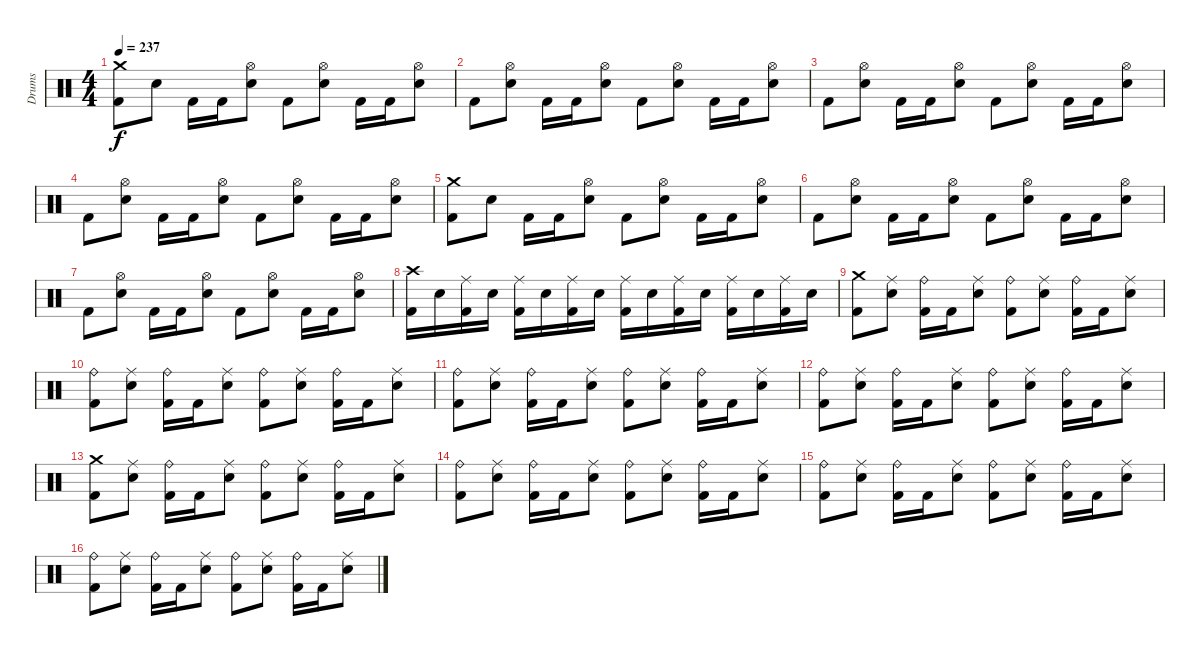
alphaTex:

\track ("Drums" "Drums") {instrument percussion}
\staff {score}
\articulation defaults
\ts (4 4)
\tempo 237
\clef neutral
\ks c
("Crash medium (hit)" "Kick (hit) 2").8{dy f} "Electric Snare (hit)".8 "Kick (hit) 2".16 "Kick (hit) 2".16 ("Hi-Hat (open)" "Electric Snare (hit)").8 "Kick (hit) 2".8 ("Hi-Hat (open)" "Electric Snare (hit)").8 "Kick (hit) 2".16 "Kick (hit) 2".16 ("Hi-Hat (open)" "Electric Snare (hit)").8 |
"Kick (hit) 2".8 ("Hi-Hat (open)" "Electric Snare (hit)").8 "Kick (hit) 2".16 "Kick (hit) 2".16 ("Hi-Hat (open)" "Electric Snare (hit)").8 "Kick (hit) 2".8 ("Hi-Hat (open)" "Electric Snare (hit)").8 "Kick (hit) 2".16 "Kick (hit) 2".16 ("Hi-Hat (open)" "Electric Snare (hit)").8 |
"Kick (hit) 2".8 ("Hi-Hat (open)" "Electric Snare (hit)").8 "Kick (hit) 2".16 "Kick (hit) 2".16 ("Hi-Hat (open)" "Electric Snare (hit)").8 "Kick (hit) 2".8 ("Hi-Hat (open)" "Electric Snare (hit)").8 "Kick (hit) 2".16 "Kick (hit) 2".16 ("Hi-Hat (open)" "Electric Snare (hit)").8 |
"Kick (hit) 2".8 ("Hi-Hat (open)" "Electric Snare (hit)").8 "Kick (hit) 2".16 "Kick (hit) 2".16 ("Hi-Hat (open)" "Electric Snare (hit)").8 "Kick (hit) 2".8 ("Hi-Hat (open)" "Electric Snare (hit)").8 "Kick (hit) 2".16 "Kick (hit) 2".16 ("Hi-Hat (open)" "Electric Snare (hit)").8 |
("Crash medium (hit)" "Kick (hit) 2").8 "Electric Snare (hit)".8 "Kick (hit) 2".16 "Kick (hit) 2".16 ("Hi-Hat (open)" "Electric Snare (hit)").8 "Kick (hit) 2".8 ("Hi-Hat (open)" "Electric Snare (hit)").8 "Kick (hit) 2".16 "Kick (hit) 2".16 ("Hi-Hat (open)" "Electric Snare (hit)").8 |
"Kick (hit) 2".8 ("Hi-Hat (open)" "Electric Snare (hit)").8 "Kick (hit) 2".16 "Kick (hit) 2".16 ("Hi-Hat (open)" "Electric Snare (hit)").8 "Kick (hit) 2".8 ("Hi-Hat (open)" "Electric Snare (hit)").8 "Kick (hit) 2".16 "Kick (hit) 2".16 ("Hi-Hat (open)" "Electric Snare (hit)").8 |
"Kick (hit) 2".8 ("Hi-Hat (open)" "Electric Snare (hit)").8 "Kick (hit) 2".16 "Kick (hit) 2".16 ("Hi-Hat (open)" "Electric Snare (hit)").8 "Kick (hit) 2".8 ("Hi-Hat (open)" "Electric Snare (hit)").8 "Kick (hit) 2".16 "Kick (hit) 2".16 ("Hi-Hat (open)" "Electric Snare (hit)").8 |
("Crash high (hit)" "Kick (hit) 2").16 "Electric Snare (hit)".16 ("Ride (middle)" "Kick (hit) 2").16 "Electric Snare (hit)".16 ("Ride (middle)" "Kick (hit) 2").16 "Electric Snare (hit)".16 ("Ride (middle)" "Kick (hit) 2").16 "Electric Snare (hit)".16 ("Ride (middle)" "Kick (hit) 2").16 "Electric Snare (hit)".16 ("Ride (middle)" "Kick (hit) 2").16 "Electric Snare (hit)".16 ("Ride (middle)" "Kick (hit) 2").16 "Electric Snare (hit)".16 ("Ride (middle)" "Kick (hit) 2").16 "Electric Snare (hit)".16 |
("Crash medium (hit)" "Kick (hit) 2").8 ("Ride (middle)" "Electric Snare (hit)").8 ("Ride (bell)" "Kick (hit) 2").16 "Kick (hit) 2".16 ("Ride (middle)" "Electric Snare (hit)").8 ("Ride (bell)" "Kick (hit) 2").8 ("Ride (middle)" "Electric Snare (hit)").8 ("Ride (bell)" "Kick (hit) 2").16 "Kick (hit) 2".16 ("Ride (middle)" "Electric Snare (hit)").8 |
("Ride (bell)" "Kick (hit) 2").8 ("Ride (middle)" "Electric Snare (hit)").8 ("Ride (bell)" "Kick (hit) 2").16 "Kick (hit) 2".16 ("Ride (middle)" "Electric Snare (hit)").8 ("Ride (bell)" "Kick (hit) 2").8 ("Ride (middle)" "Electric Snare (hit)").8 ("Ride (bell)" "Kick (hit) 2").16 "Kick (hit) 2".16 ("Ride (middle)" "Electric Snare (hit)").8 |
("Ride (bell)" "Kick (hit) 2").8 ("Ride (middle)" "Electric Snare (hit)").8 ("Ride (bell)" "Kick (hit) 2").16 "Kick (hit) 2".16 ("Ride (middle)" "Electric Snare (hit)").8 ("Ride (bell)" "Kick (hit) 2").8 ("Ride (middle)" "Electric Snare (hit)").8 ("Ride (bell)" "Kick (hit) 2").16 "Kick (hit) 2".16 ("Ride (middle)" "Electric Snare (hit)").8 |
("Ride (bell)" "Kick (hit) 2").8 ("Ride (middle)" "Electric Snare (hit)").8 ("Ride (bell)" "Kick (hit) 2").16 "Kick (hit) 2".16 ("Ride (middle)" "Electric Snare (hit)").8 ("Ride (bell)" "Kick (hit) 2").8 ("Ride (middle)" "Electric Snare (hit)").8 ("Ride (bell)" "Kick (hit) 2").16 "Kick (hit) 2".16 ("Ride (middle)" "Electric Snare (hit)").8 |
("Crash medium (hit)" "Kick (hit) 2").8 ("Ride (middle)" "Electric Snare (hit)").8 ("Ride (bell)" "Kick (hit) 2").16 "Kick (hit) 2".16 ("Ride (middle)" "Electric Snare (hit)").8 ("Ride (bell)" "Kick (hit) 2").8 ("Ride (middle)" "Electric Snare (hit)").8 ("Ride (bell)" "Kick (hit) 2").16 "Kick (hit) 2".16 ("Ride (middle)" "Electric Snare (hit)").8 |
("Ride (bell)" "Kick (hit) 2").8 ("Ride (middle)" "Electric Snare (hit)").8 ("Ride (bell)" "Kick (hit) 2").16 "Kick (hit) 2".16 ("Ride (middle)" "Electric Snare (hit)").8 ("Ride (bell)" "Kick (hit) 2").8 ("Ride (middle)" "Electric Snare (hit)").8 ("Ride (bell)" "Kick (hit) 2").16 "Kick (hit) 2".16 ("Ride (middle)" "Electric Snare (hit)").8 |
("Ride (bell)" "Kick (hit) 2").8 ("Ride (middle)" "Electric Snare (hit)").8 ("Ride (bell)" "Kick (hit) 2").16 "Kick (hit) 2".16 ("Ride (middle)" "Electric Snare (hit)").8 ("Ride (bell)" "Kick (hit) 2").8 ("Ride (middle)" "Electric Snare (hit)").8 ("Ride (bell)" "Kick (hit) 2").16 "Kick (hit) 2".16 ("Ride (middle)" "Electric Snare (hit)").8 |
("Ride (bell)" "Kick (hit) 2").8 ("Ride (middle)" "Electric Snare (hit)").8 ("Ride (bell)" "Kick (hit) 2").16 "Kick (hit) 2".16 ("Ride (middle)" "Electric Snare (hit)").8 ("Ride (bell)" "Kick (hit) 2").8 ("Ride (middle)" "Electric Snare (hit)").8 ("Ride (bell)" "Kick (hit) 2").16 "Kick (hit) 2".16 ("Ride (middle)" "Electric Snare (hit)").8
